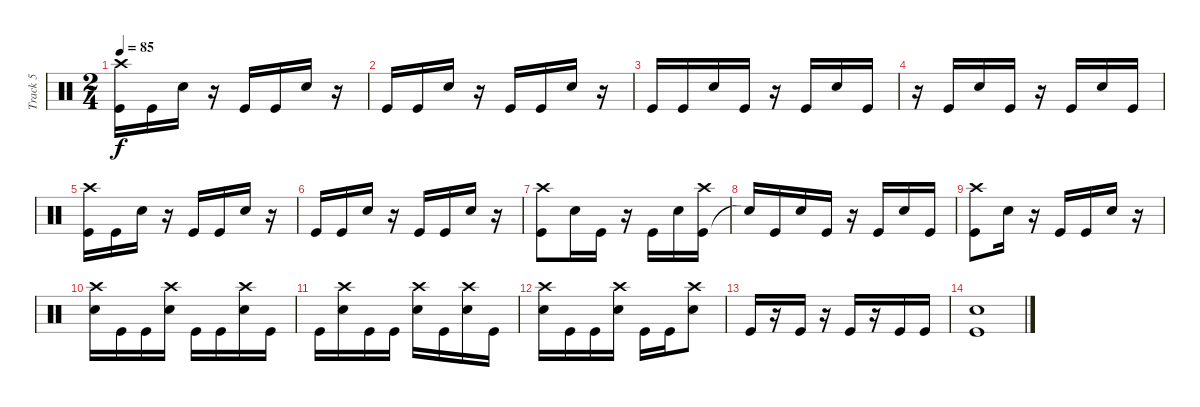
\track ("Track 5" "Track 5") {instrument percussion}
\staff {score}
\articulation defaults
\ts (2 4)
\tempo 85
\clef neutral
\ks c
("Kick (hit)" "Crash high (hit)").16{dy f} "Kick (hit)".16 "Electric Snare (hit)".16 r.16 "Kick (hit)".16 "Kick (hit)".16 "Electric Snare (hit)".16 r.16 |
"Kick (hit)".16 "Kick (hit)".16 "Electric Snare (hit)".16 r.16 "Kick (hit)".16 "Kick (hit)".16 "Electric Snare (hit)".16 r.16 |
"Kick (hit)".16 "Kick (hit)".16 "Electric Snare (hit)".16 "Kick (hit)".16 r.16 "Kick (hit)".16 "Electric Snare (hit)".16 "Kick (hit)".16 |
r.16 "Kick (hit)".16 "Electric Snare (hit)".16 "Kick (hit)".16 r.16 "Kick (hit)".16 "Electric Snare (hit)".16 "Kick (hit)".16 |
("Kick (hit)" "Crash high (hit)").16 "Kick (hit)".16 "Electric Snare (hit)".16 r.16 "Kick (hit)".16 "Kick (hit)".16 "Electric Snare (hit)".16 r.16 |
"Kick (hit)".16 "Kick (hit)".16 "Electric Snare (hit)".16 r.16 "Kick (hit)".16 "Kick (hit)".16 "Electric Snare (hit)".16 r.16 |
("Kick (hit)" "Crash high (hit)").8 "Electric Snare (hit)".16 "Kick (hit)".16 r.16 "Kick (hit)".16 "Electric Snare (hit)".16 ("Kick (hit)" "Crash high (hit)").16 |
"Snare (hit)"{t}.16 "Kick (hit)".16 "Electric Snare (hit)".16 "Kick (hit)".16 r.16 "Kick (hit)".16 "Electric Snare (hit)".16 "Kick (hit)".16 |
("Crash high (hit)" "Kick (hit)").8 "Electric Snare (hit)".16 r.16 "Kick (hit)".16 "Kick (hit)".16 "Electric Snare (hit)".16 r.16 |
("Electric Snare (hit)" "Crash high (hit)").16 "Kick (hit)".16 "Kick (hit)".16 ("Electric Snare (hit)" "Crash high (hit)").16 "Kick (hit)".16 "Kick (hit)".16 ("Electric Snare (hit)" "Crash high (hit)").16 "Kick (hit)".16 |
"Kick (hit)".16 ("Crash high (hit)" "Electric Snare (hit)").16 "Kick (hit)".16 "Kick (hit)".16 ("Crash high (hit)" "Electric Snare (hit)").16 "Kick (hit)".16 ("Crash high (hit)" "Electric Snare (hit)").16 "Kick (hit)".16 |
("Electric Snare (hit)" "Crash high (hit)").16 "Kick (hit)".16 "Kick (hit)".16 ("Electric Snare (hit)" "Crash high (hit)").16 "Kick (hit)".16 "Kick (hit)".16 ("Electric Snare (hit)" "Crash high (hit)").8 |
"Kick (hit)".16 r.16 "Kick (hit)".16 r.16 "Kick (hit)".16 r.16 "Kick (hit)".16 "Kick (hit)".16 |
("Kick (hit)" "Electric Snare (hit)").1
